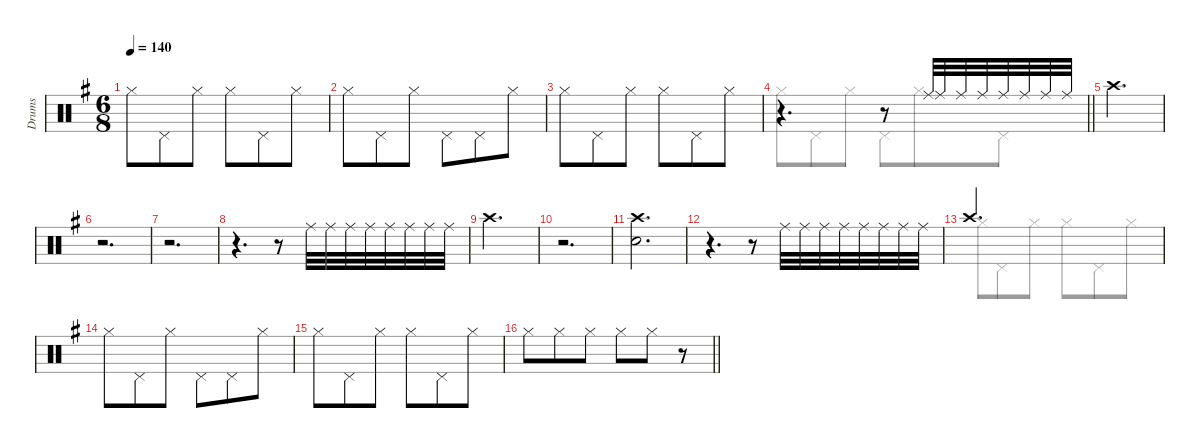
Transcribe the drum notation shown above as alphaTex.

\defaultSystemsLayout 8
\hideDynamics
\bracketExtendMode groupsimilarinstruments
\firstSystemTrackNameMode fullname
\otherSystemsTrackNameOrientation horizontal
\track ("Drums" "drm.") {defaultSystemsLayout 4 instrument percussion}
\staff {score}
\articulation defaults
\voice
\ts (6 8)
\tempo 140
\clef neutral
\ks g "Hi-Hat (closed)"{acc forcenatural}.8{dy f beam Down} "Pedal Hi-Hat (hit)"{acc forcenatural}.8{beam Down} "Hi-Hat (closed)"{acc forcenatural}.8{beam Down} "Hi-Hat (closed)"{acc forcenatural}.8{beam Down} "Pedal Hi-Hat (hit)"{acc forcenatural}.8{beam Down} "Hi-Hat (closed)"{acc forcenatural}.8{beam Down}
|
"Hi-Hat (closed)"{acc forcenatural}.8{beam Down} "Pedal Hi-Hat (hit)"{acc forcenatural}.8{beam Down} "Hi-Hat (closed)"{acc forcenatural}.8{beam Down} "Pedal Hi-Hat (hit)"{acc forcenatural}.8{beam Down} "Pedal Hi-Hat (hit)"{acc forcenatural}.8{beam Down} "Hi-Hat (closed)"{acc forcenatural}.8{beam Down} |
"Hi-Hat (closed)"{acc forcenatural}.8{beam Down} "Pedal Hi-Hat (hit)"{acc forcenatural}.8{beam Down} "Hi-Hat (closed)"{acc forcenatural}.8{beam Down} "Hi-Hat (closed)"{acc forcenatural}.8{beam Down} "Pedal Hi-Hat (hit)"{acc forcenatural}.8{beam Down} "Hi-Hat (closed)"{acc forcenatural}.8{beam Down} |
\barLineRight lightlight
r.4{d beam Up} r.8{beam Up} "Ride (middle)"{acc forcenatural}.32{dy p beam Up} "Ride (middle)"{acc forcenatural}.32{beam Up} "Ride (middle)"{acc forcenatural}.32{dy mp beam Up} "Ride (middle)"{acc forcenatural}.32{beam Up} "Ride (middle)"{acc forcenatural}.32{dy mf beam Up} "Ride (middle)"{acc forcenatural}.32{beam Up} "Ride (middle)"{acc forcenatural}.32{dy f beam Up} "Ride (middle)"{acc forcenatural}.32{beam Up} |
"Crash high (hit)"{acc forcenatural}.2{d dy ff beam Down} |
r.2{d beam Down} |
r.2{d beam Down} |
r.4{d beam Down} r.8{beam Down} "Ride (middle)"{acc forcenatural}.32{dy p beam Down} "Ride (middle)"{acc forcenatural}.32{beam Down} "Ride (middle)"{acc forcenatural}.32{dy mp beam Down} "Ride (middle)"{acc forcenatural}.32{beam Down} "Ride (middle)"{acc forcenatural}.32{dy mf beam Down} "Ride (middle)"{acc forcenatural}.32{beam Down} "Ride (middle)"{acc forcenatural}.32{dy f beam Down} "Ride (middle)"{acc forcenatural}.32{beam Down} |
"Crash high (hit)"{acc forcenatural}.2{d dy ff beam Down} |
r.2{d beam Down} |
("Crash high (hit)"{acc forcenatural} "Snare (hit) 2"{acc forcenatural}).2{d beam Down} |
r.4{d beam Down} r.8{beam Down} "Ride (middle)"{acc forcenatural}.32{dy p beam Down} "Ride (middle)"{acc forcenatural}.32{beam Down} "Ride (middle)"{acc forcenatural}.32{dy mp beam Down} "Ride (middle)"{acc forcenatural}.32{beam Down} "Ride (middle)"{acc forcenatural}.32{dy mf beam Down} "Ride (middle)"{acc forcenatural}.32{beam Down} "Ride (middle)"{acc forcenatural}.32{dy f beam Down} "Ride (middle)"{acc forcenatural}.32{beam Down} |
"Crash high (hit)"{acc forcenatural}.2{d dy ff beam Up} |
"Hi-Hat (closed)"{acc forcenatural}.8{dy f beam Down} "Pedal Hi-Hat (hit)"{acc forcenatural}.8{beam Down} "Hi-Hat (closed)"{acc forcenatural}.8{beam Down} "Pedal Hi-Hat (hit)"{acc forcenatural}.8{beam Down} "Pedal Hi-Hat (hit)"{acc forcenatural}.8{beam Down} "Hi-Hat (closed)"{acc forcenatural}.8{beam Down} |
"Hi-Hat (closed)"{acc forcenatural}.8{beam Down} "Pedal Hi-Hat (hit)"{acc forcenatural}.8{beam Down} "Hi-Hat (closed)"{acc forcenatural}.8{beam Down} "Hi-Hat (closed)"{acc forcenatural}.8{beam Down} "Pedal Hi-Hat (hit)"{acc forcenatural}.8{beam Down} "Hi-Hat (closed)"{acc forcenatural}.8{beam Down} |
\barLineRight lightlight "Hi-Hat (closed)"{acc forcenatural}.8{dy pp beam Down} "Hi-Hat (closed)"{acc forcenatural}.8{dy p beam Down} "Hi-Hat (closed)"{acc forcenatural}.8{dy mp beam Down} "Hi-Hat (closed)"{acc forcenatural}.8{dy mf beam Down} "Hi-Hat (closed)"{acc forcenatural}.8{dy f beam Down}
r.8{beam Down}
\voice
\clef neutral
\ottava regular
\simile none
\ks g
|
|
|
\barLineRight lightlight "Hi-Hat (closed)"{acc forcenatural}.8{beam Down} "Pedal Hi-Hat (hit)"{acc forcenatural}.8{beam Down} "Hi-Hat (closed)"{acc forcenatural}.8{beam Down} "Pedal Hi-Hat (hit)"{acc forcenatural}.8{beam Down} "Hi-Hat (closed)"{acc forcenatural}.8{beam Down} "Pedal Hi-Hat (hit)"{acc forcenatural}.8{beam Down}
|
|
|
|
|
|
|
|
|
"Hi-Hat (closed)"{acc forcenatural}.8{beam Down} "Pedal Hi-Hat (hit)"{acc forcenatural}.8{beam Down} "Hi-Hat (closed)"{acc forcenatural}.8{beam Down} "Hi-Hat (closed)"{acc forcenatural}.8{beam Down} "Pedal Hi-Hat (hit)"{acc forcenatural}.8{beam Down} "Hi-Hat (closed)"{acc forcenatural}.8{beam Down} |
|
|
\barLineRight lightlight
